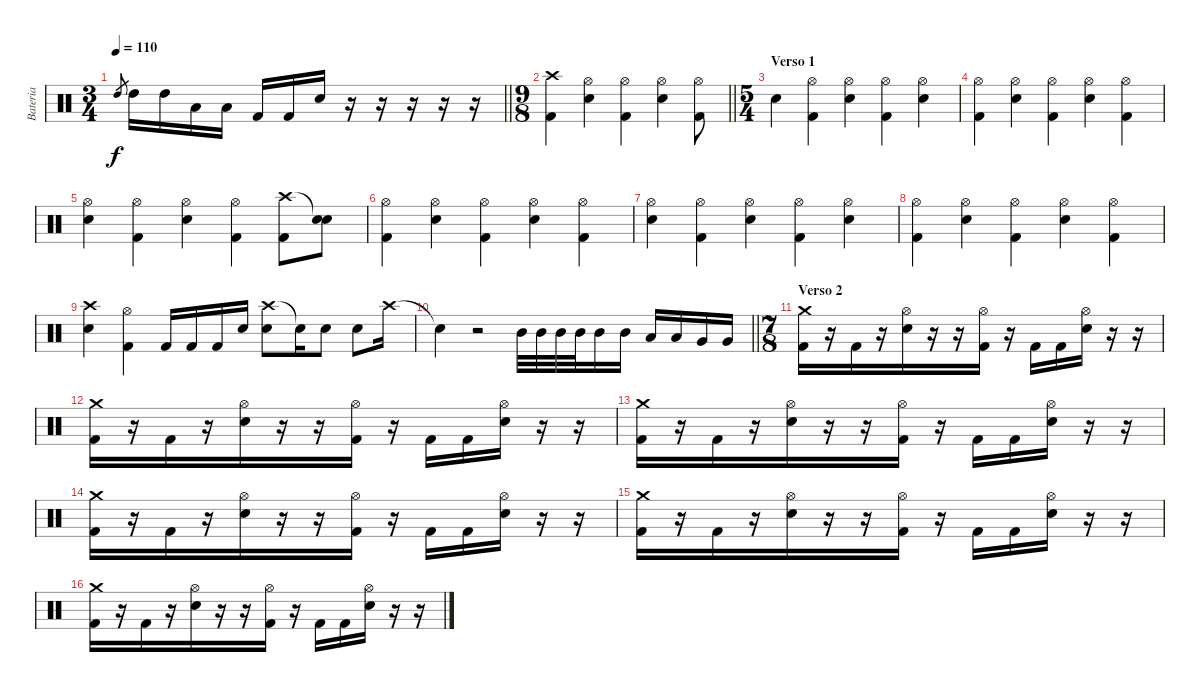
\track ("Bateria " "Bateria ") {instrument percussion}
\staff {score}
\articulation defaults
\ts (3 4)
\tempo 110
\clef neutral
\barLineRight lightlight
\ks c "High Tom (hit)".8{gr dy f} "High Tom (hit)".16 "High Tom (hit)".16 "Low Tom (hit)".16 "Low Tom (hit)".16 "Kick (hit) 2".16 "Kick (hit) 2".16 "Electric Snare (hit)".16
r.16 r.16 r.16 r.16 r.16 |
\ts (9 8)
\barLineRight lightlight
("Crash high (hit)" "Kick (hit) 2").4 ("Hi-Hat (open)" "Electric Snare (hit)").4 ("Hi-Hat (open)" "Kick (hit) 2").4 ("Hi-Hat (open)" "Electric Snare (hit)").4 ("Hi-Hat (open)" "Kick (hit) 2").8 |
\ts (5 4)
\section ("" "Verso 1")
"Electric Snare (hit)".4 ("Hi-Hat (open)" "Kick (hit) 2").4 ("Hi-Hat (open)" "Electric Snare (hit)").4 ("Hi-Hat (open)" "Kick (hit) 2").4 ("Hi-Hat (open)" "Electric Snare (hit)").4 |
("Hi-Hat (open)" "Kick (hit) 2").4 ("Hi-Hat (open)" "Electric Snare (hit)").4 ("Hi-Hat (open)" "Kick (hit) 2").4 ("Hi-Hat (open)" "Electric Snare (hit)").4 ("Hi-Hat (open)" "Kick (hit) 2").4 |
("Hi-Hat (open)" "Electric Snare (hit)").4 ("Hi-Hat (open)" "Kick (hit) 2").4 ("Hi-Hat (open)" "Electric Snare (hit)").4 ("Hi-Hat (open)" "Kick (hit) 2").4 ("Crash high (hit)" "Kick (hit) 2").8 ("Snare (hit)"{t} "Electric Snare (hit)").8 |
("Hi-Hat (open)" "Kick (hit) 2").4 ("Hi-Hat (open)" "Electric Snare (hit)").4 ("Hi-Hat (open)" "Kick (hit) 2").4 ("Hi-Hat (open)" "Electric Snare (hit)").4 ("Hi-Hat (open)" "Kick (hit) 2").4 |
("Hi-Hat (open)" "Electric Snare (hit)").4 ("Hi-Hat (open)" "Kick (hit) 2").4 ("Hi-Hat (open)" "Electric Snare (hit)").4 ("Hi-Hat (open)" "Kick (hit) 2").4 ("Hi-Hat (open)" "Electric Snare (hit)").4 |
("Hi-Hat (open)" "Kick (hit) 2").4 ("Hi-Hat (open)" "Electric Snare (hit)").4 ("Hi-Hat (open)" "Kick (hit) 2").4 ("Hi-Hat (open)" "Electric Snare (hit)").4 ("Hi-Hat (open)" "Kick (hit) 2").4 |
("Crash high (hit)" "Electric Snare (hit)").4 ("Hi-Hat (open)" "Kick (hit) 2").4 "Kick (hit) 2".16 "Kick (hit) 2".16 "Kick (hit) 2".16 "Electric Snare (hit)".16 ("Crash high (hit)" "Electric Snare (hit)").8 "Snare (hit)"{t}.16 "Electric Snare (hit)".8 "Electric Snare (hit)".8 "Crash high (hit)".16 |
\barLineRight lightlight "Snare (hit)"{t}.4
r.2 "Mid Tom (hit)".32 "Mid Tom (hit)".32 "Mid Tom (hit)".32 "Mid Tom (hit)".32 "Mid Tom (hit)".16 "Mid Tom (hit)".16 "Low Tom (hit)".16 "Low Tom (hit)".16 "Very Low Tom (hit)".16 "Very Low Tom (hit)".16 |
\ts (7 8)
\section ("" "Verso 2")
("Crash medium (hit)" "Kick (hit) 2").16 r.16 "Kick (hit) 2".16 r.16 ("Hi-Hat (open)" "Electric Snare (hit)").16 r.16 r.16 ("Hi-Hat (open)" "Kick (hit) 2").16 r.16 "Kick (hit) 2".16 "Kick (hit) 2".16 ("Hi-Hat (open)" "Electric Snare (hit)").16 r.16 r.16 |
("Crash medium (hit)" "Kick (hit) 2").16 r.16 "Kick (hit) 2".16 r.16 ("Hi-Hat (open)" "Electric Snare (hit)").16 r.16 r.16 ("Hi-Hat (open)" "Kick (hit) 2").16 r.16 "Kick (hit) 2".16 "Kick (hit) 2".16 ("Hi-Hat (open)" "Electric Snare (hit)").16 r.16 r.16 |
("Crash medium (hit)" "Kick (hit) 2").16 r.16 "Kick (hit) 2".16 r.16 ("Hi-Hat (open)" "Electric Snare (hit)").16 r.16 r.16 ("Hi-Hat (open)" "Kick (hit) 2").16 r.16 "Kick (hit) 2".16 "Kick (hit) 2".16 ("Hi-Hat (open)" "Electric Snare (hit)").16 r.16 r.16 |
("Crash medium (hit)" "Kick (hit) 2").16 r.16 "Kick (hit) 2".16 r.16 ("Hi-Hat (open)" "Electric Snare (hit)").16 r.16 r.16 ("Hi-Hat (open)" "Kick (hit) 2").16 r.16 "Kick (hit) 2".16 "Kick (hit) 2".16 ("Hi-Hat (open)" "Electric Snare (hit)").16 r.16 r.16 |
("Crash medium (hit)" "Kick (hit) 2").16 r.16 "Kick (hit) 2".16 r.16 ("Hi-Hat (open)" "Electric Snare (hit)").16 r.16 r.16 ("Hi-Hat (open)" "Kick (hit) 2").16 r.16 "Kick (hit) 2".16 "Kick (hit) 2".16 ("Hi-Hat (open)" "Electric Snare (hit)").16 r.16 r.16 |
("Crash medium (hit)" "Kick (hit) 2").16 r.16 "Kick (hit) 2".16 r.16 ("Hi-Hat (open)" "Electric Snare (hit)").16 r.16 r.16 ("Hi-Hat (open)" "Kick (hit) 2").16 r.16 "Kick (hit) 2".16 "Kick (hit) 2".16 ("Hi-Hat (open)" "Electric Snare (hit)").16 r.16 r.16
